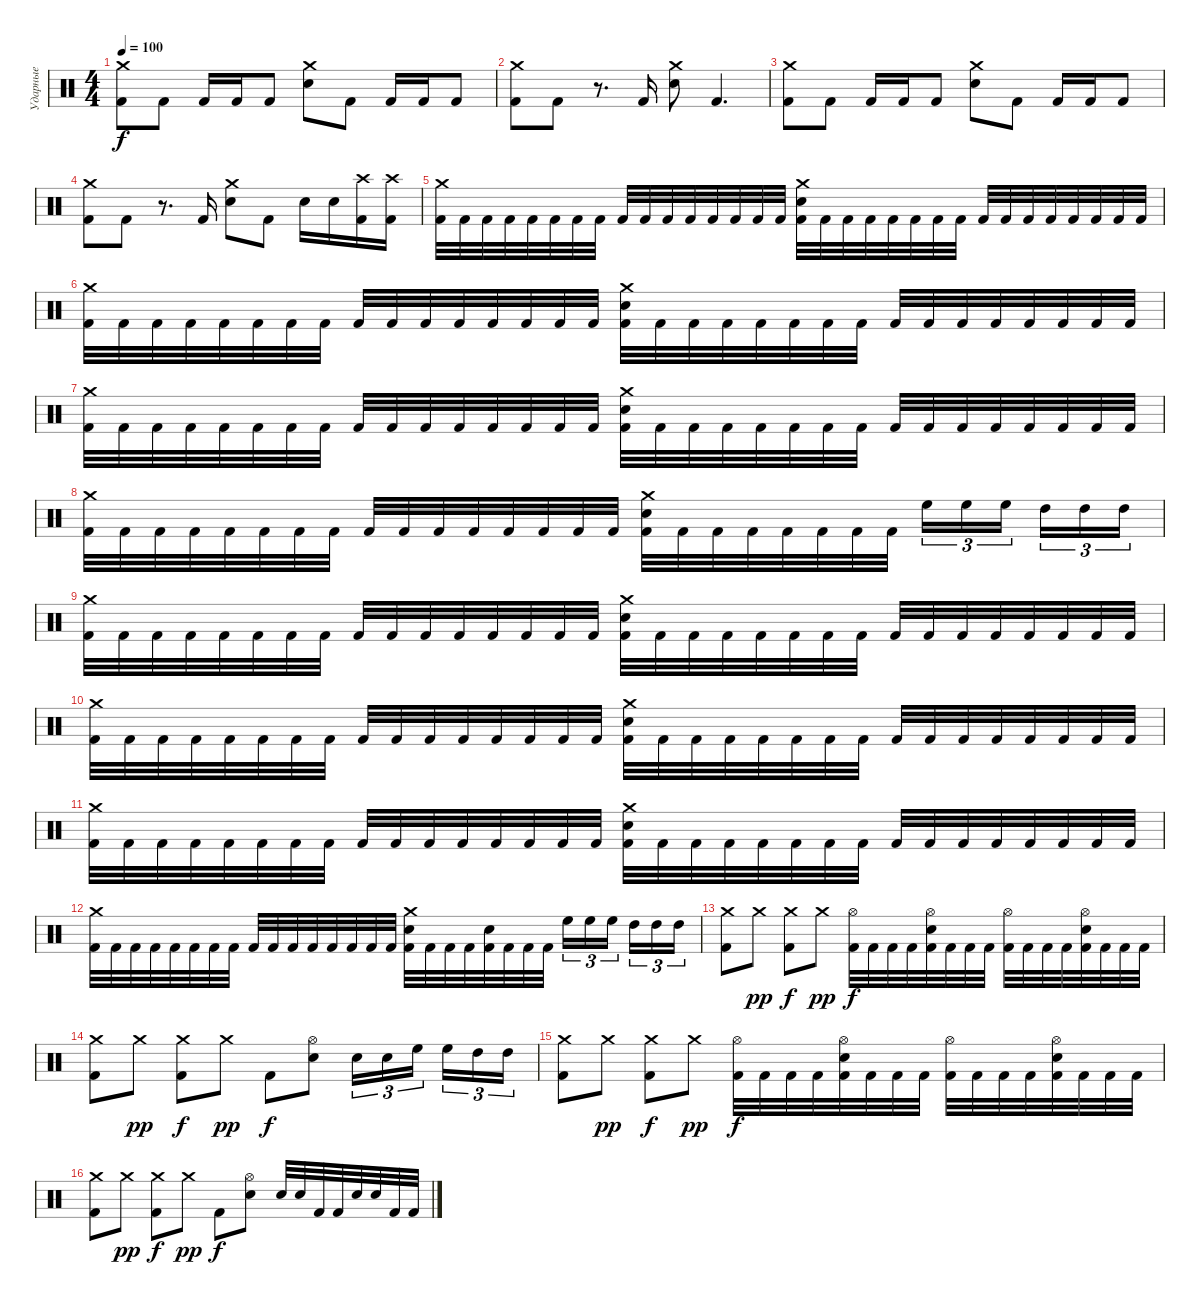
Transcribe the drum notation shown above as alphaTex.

\track ("Ударные" "Ударные") {instrument percussion}
\staff {score}
\articulation defaults
\ts (4 4)
\tempo 100
\clef neutral
\ks c
("Crash medium (hit)" "Kick (hit) 2").8{dy f} "Kick (hit) 2".8 "Kick (hit) 2".16 "Kick (hit) 2".16 "Kick (hit) 2".8 ("Crash medium (hit)" "Electric Snare (hit)").8 "Kick (hit) 2".8 "Kick (hit) 2".16 "Kick (hit) 2".16 "Kick (hit) 2".8 |
("Crash medium (hit)" "Kick (hit) 2").8 "Kick (hit) 2".8 r.8{d} "Kick (hit) 2".16 ("Crash medium (hit)" "Electric Snare (hit)").8 "Kick (hit) 2".4{d} |
("Crash medium (hit)" "Kick (hit) 2").8 "Kick (hit) 2".8 "Kick (hit) 2".16 "Kick (hit) 2".16 "Kick (hit) 2".8 ("Crash medium (hit)" "Electric Snare (hit)").8 "Kick (hit) 2".8 "Kick (hit) 2".16 "Kick (hit) 2".16 "Kick (hit) 2".8 |
("Crash medium (hit)" "Kick (hit) 2").8 "Kick (hit) 2".8 r.8{d} "Kick (hit) 2".16 ("Crash medium (hit)" "Electric Snare (hit)").8 "Kick (hit) 2".8 "Electric Snare (hit)".16 "Electric Snare (hit)".16 ("Crash high (hit)" "Kick (hit) 2").16 ("Crash high (hit)" "Kick (hit) 2").16 |
("Crash medium (hit)" "Kick (hit) 2").32 "Kick (hit) 2".32 "Kick (hit) 2".32 "Kick (hit) 2".32 "Kick (hit) 2".32 "Kick (hit) 2".32 "Kick (hit) 2".32 "Kick (hit) 2".32 "Kick (hit) 2".32 "Kick (hit) 2".32 "Kick (hit) 2".32 "Kick (hit) 2".32 "Kick (hit) 2".32 "Kick (hit) 2".32 "Kick (hit) 2".32 "Kick (hit) 2".32 ("Crash medium (hit)" "Electric Snare (hit)" "Kick (hit) 2").32 "Kick (hit) 2".32 "Kick (hit) 2".32 "Kick (hit) 2".32 "Kick (hit) 2".32 "Kick (hit) 2".32 "Kick (hit) 2".32 "Kick (hit) 2".32 "Kick (hit) 2".32 "Kick (hit) 2".32 "Kick (hit) 2".32 "Kick (hit) 2".32 "Kick (hit) 2".32 "Kick (hit) 2".32 "Kick (hit) 2".32 "Kick (hit) 2".32 |
("Crash medium (hit)" "Kick (hit) 2").32 "Kick (hit) 2".32 "Kick (hit) 2".32 "Kick (hit) 2".32 "Kick (hit) 2".32 "Kick (hit) 2".32 "Kick (hit) 2".32 "Kick (hit) 2".32 "Kick (hit) 2".32 "Kick (hit) 2".32 "Kick (hit) 2".32 "Kick (hit) 2".32 "Kick (hit) 2".32 "Kick (hit) 2".32 "Kick (hit) 2".32 "Kick (hit) 2".32 ("Crash medium (hit)" "Electric Snare (hit)" "Kick (hit) 2").32 "Kick (hit) 2".32 "Kick (hit) 2".32 "Kick (hit) 2".32 "Kick (hit) 2".32 "Kick (hit) 2".32 "Kick (hit) 2".32 "Kick (hit) 2".32 "Kick (hit) 2".32 "Kick (hit) 2".32 "Kick (hit) 2".32 "Kick (hit) 2".32 "Kick (hit) 2".32 "Kick (hit) 2".32 "Kick (hit) 2".32 "Kick (hit) 2".32 |
("Crash medium (hit)" "Kick (hit) 2").32 "Kick (hit) 2".32 "Kick (hit) 2".32 "Kick (hit) 2".32 "Kick (hit) 2".32 "Kick (hit) 2".32 "Kick (hit) 2".32 "Kick (hit) 2".32 "Kick (hit) 2".32 "Kick (hit) 2".32 "Kick (hit) 2".32 "Kick (hit) 2".32 "Kick (hit) 2".32 "Kick (hit) 2".32 "Kick (hit) 2".32 "Kick (hit) 2".32 ("Crash medium (hit)" "Electric Snare (hit)" "Kick (hit) 2").32 "Kick (hit) 2".32 "Kick (hit) 2".32 "Kick (hit) 2".32 "Kick (hit) 2".32 "Kick (hit) 2".32 "Kick (hit) 2".32 "Kick (hit) 2".32 "Kick (hit) 2".32 "Kick (hit) 2".32 "Kick (hit) 2".32 "Kick (hit) 2".32 "Kick (hit) 2".32 "Kick (hit) 2".32 "Kick (hit) 2".32 "Kick (hit) 2".32 |
("Crash medium (hit)" "Kick (hit) 2").32 "Kick (hit) 2".32 "Kick (hit) 2".32 "Kick (hit) 2".32 "Kick (hit) 2".32 "Kick (hit) 2".32 "Kick (hit) 2".32 "Kick (hit) 2".32 "Kick (hit) 2".32 "Kick (hit) 2".32 "Kick (hit) 2".32 "Kick (hit) 2".32 "Kick (hit) 2".32 "Kick (hit) 2".32 "Kick (hit) 2".32 "Kick (hit) 2".32 ("Crash medium (hit)" "Electric Snare (hit)" "Kick (hit) 2").32 "Kick (hit) 2".32 "Kick (hit) 2".32 "Kick (hit) 2".32 "Kick (hit) 2".32 "Kick (hit) 2".32 "Kick (hit) 2".32 "Kick (hit) 2".32 "High Floor Tom (hit)".16{tu (3 2)} "High Floor Tom (hit)".16{tu (3 2)} "High Floor Tom (hit)".16{tu (3 2) beam splitsecondary} "High Tom (hit)".16{tu (3 2)} "High Tom (hit)".16{tu (3 2)} "High Tom (hit)".16{tu (3 2)} |
("Crash medium (hit)" "Kick (hit) 2").32 "Kick (hit) 2".32 "Kick (hit) 2".32 "Kick (hit) 2".32 "Kick (hit) 2".32 "Kick (hit) 2".32 "Kick (hit) 2".32 "Kick (hit) 2".32 "Kick (hit) 2".32 "Kick (hit) 2".32 "Kick (hit) 2".32 "Kick (hit) 2".32 "Kick (hit) 2".32 "Kick (hit) 2".32 "Kick (hit) 2".32 "Kick (hit) 2".32 ("Crash medium (hit)" "Electric Snare (hit)" "Kick (hit) 2").32 "Kick (hit) 2".32 "Kick (hit) 2".32 "Kick (hit) 2".32 "Kick (hit) 2".32 "Kick (hit) 2".32 "Kick (hit) 2".32 "Kick (hit) 2".32 "Kick (hit) 2".32 "Kick (hit) 2".32 "Kick (hit) 2".32 "Kick (hit) 2".32 "Kick (hit) 2".32 "Kick (hit) 2".32 "Kick (hit) 2".32 "Kick (hit) 2".32 |
("Crash medium (hit)" "Kick (hit) 2").32 "Kick (hit) 2".32 "Kick (hit) 2".32 "Kick (hit) 2".32 "Kick (hit) 2".32 "Kick (hit) 2".32 "Kick (hit) 2".32 "Kick (hit) 2".32 "Kick (hit) 2".32 "Kick (hit) 2".32 "Kick (hit) 2".32 "Kick (hit) 2".32 "Kick (hit) 2".32 "Kick (hit) 2".32 "Kick (hit) 2".32 "Kick (hit) 2".32 ("Crash medium (hit)" "Electric Snare (hit)" "Kick (hit) 2").32 "Kick (hit) 2".32 "Kick (hit) 2".32 "Kick (hit) 2".32 "Kick (hit) 2".32 "Kick (hit) 2".32 "Kick (hit) 2".32 "Kick (hit) 2".32 "Kick (hit) 2".32 "Kick (hit) 2".32 "Kick (hit) 2".32 "Kick (hit) 2".32 "Kick (hit) 2".32 "Kick (hit) 2".32 "Kick (hit) 2".32 "Kick (hit) 2".32 |
("Crash medium (hit)" "Kick (hit) 2").32 "Kick (hit) 2".32 "Kick (hit) 2".32 "Kick (hit) 2".32 "Kick (hit) 2".32 "Kick (hit) 2".32 "Kick (hit) 2".32 "Kick (hit) 2".32 "Kick (hit) 2".32 "Kick (hit) 2".32 "Kick (hit) 2".32 "Kick (hit) 2".32 "Kick (hit) 2".32 "Kick (hit) 2".32 "Kick (hit) 2".32 "Kick (hit) 2".32 ("Crash medium (hit)" "Electric Snare (hit)" "Kick (hit) 2").32 "Kick (hit) 2".32 "Kick (hit) 2".32 "Kick (hit) 2".32 "Kick (hit) 2".32 "Kick (hit) 2".32 "Kick (hit) 2".32 "Kick (hit) 2".32 "Kick (hit) 2".32 "Kick (hit) 2".32 "Kick (hit) 2".32 "Kick (hit) 2".32 "Kick (hit) 2".32 "Kick (hit) 2".32 "Kick (hit) 2".32 "Kick (hit) 2".32 |
("Crash medium (hit)" "Kick (hit) 2").32 "Kick (hit) 2".32 "Kick (hit) 2".32 "Kick (hit) 2".32 "Kick (hit) 2".32 "Kick (hit) 2".32 "Kick (hit) 2".32 "Kick (hit) 2".32 "Kick (hit) 2".32 "Kick (hit) 2".32 "Kick (hit) 2".32 "Kick (hit) 2".32 "Kick (hit) 2".32 "Kick (hit) 2".32 "Kick (hit) 2".32 "Kick (hit) 2".32 ("Crash medium (hit)" "Electric Snare (hit)" "Kick (hit) 2").32 "Kick (hit) 2".32 "Kick (hit) 2".32 "Kick (hit) 2".32 ("Electric Snare (hit)" "Kick (hit) 2").32 "Kick (hit) 2".32 "Kick (hit) 2".32 "Kick (hit) 2".32 "High Floor Tom (hit)".16{tu (3 2)} "High Floor Tom (hit)".16{tu (3 2)} "High Floor Tom (hit)".16{tu (3 2) beam splitsecondary} "High Tom (hit)".16{tu (3 2)} "High Tom (hit)".16{tu (3 2)} "High Tom (hit)".16{tu (3 2)} |
("Crash medium (hit)" "Kick (hit) 2").8 "Crash medium (hit)".8{dy pp} ("Crash medium (hit)" "Kick (hit) 2").8{dy f} "Crash medium (hit)".8{dy pp} ("Hi-Hat (open)" "Kick (hit) 2").32{dy f} "Kick (hit) 2".32 "Kick (hit) 2".32 "Kick (hit) 2".32 ("Hi-Hat (open)" "Electric Snare (hit)" "Kick (hit) 2").32 "Kick (hit) 2".32 "Kick (hit) 2".32 "Kick (hit) 2".32 ("Hi-Hat (open)" "Kick (hit) 2").32 "Kick (hit) 2".32 "Kick (hit) 2".32 "Kick (hit) 2".32 ("Hi-Hat (open)" "Electric Snare (hit)" "Kick (hit) 2").32 "Kick (hit) 2".32 "Kick (hit) 2".32 "Kick (hit) 2".32 |
("Crash medium (hit)" "Kick (hit) 2").8 "Crash medium (hit)".8{dy pp} ("Crash medium (hit)" "Kick (hit) 2").8{dy f} "Crash medium (hit)".8{dy pp} "Kick (hit) 2".8{dy f} ("Hi-Hat (open)" "Electric Snare (hit)").8 "Electric Snare (hit)".16{tu (3 2)} "Electric Snare (hit)".16{tu (3 2)} "High Floor Tom (hit)".16{tu (3 2) beam splitsecondary} "High Floor Tom (hit)".16{tu (3 2)} "High Tom (hit)".16{tu (3 2)} "High Tom (hit)".16{tu (3 2)} |
("Crash medium (hit)" "Kick (hit) 2").8 "Crash medium (hit)".8{dy pp} ("Crash medium (hit)" "Kick (hit) 2").8{dy f} "Crash medium (hit)".8{dy pp} ("Hi-Hat (open)" "Kick (hit) 2").32{dy f} "Kick (hit) 2".32 "Kick (hit) 2".32 "Kick (hit) 2".32 ("Hi-Hat (open)" "Electric Snare (hit)" "Kick (hit) 2").32 "Kick (hit) 2".32 "Kick (hit) 2".32 "Kick (hit) 2".32 ("Hi-Hat (open)" "Kick (hit) 2").32 "Kick (hit) 2".32 "Kick (hit) 2".32 "Kick (hit) 2".32 ("Hi-Hat (open)" "Electric Snare (hit)" "Kick (hit) 2").32 "Kick (hit) 2".32 "Kick (hit) 2".32 "Kick (hit) 2".32 |
("Crash medium (hit)" "Kick (hit) 2").8 "Crash medium (hit)".8{dy pp} ("Crash medium (hit)" "Kick (hit) 2").8{dy f} "Crash medium (hit)".8{dy pp} "Kick (hit) 2".8{dy f} ("Hi-Hat (open)" "Electric Snare (hit)").8 "Electric Snare (hit)".32 "Electric Snare (hit)".32 "Kick (hit) 2".32 "Kick (hit) 2".32 "Electric Snare (hit)".32 "Electric Snare (hit)".32 "Kick (hit) 2".32 "Kick (hit) 2".32
